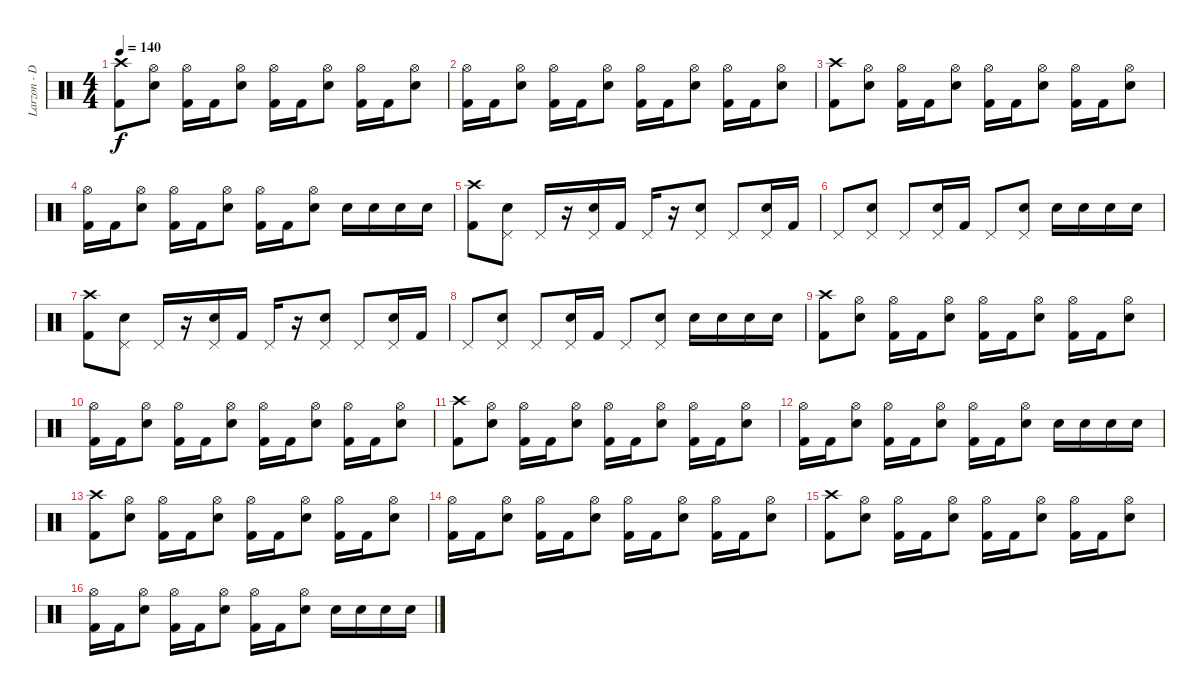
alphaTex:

\track ("Larzon - Drums" "Larzon - D") {instrument percussion}
\staff {score}
\articulation defaults
\ts (4 4)
\tempo 140
\clef neutral
\ks c
("Crash high (hit)" "Kick (hit) 2").8{dy f} ("Hi-Hat (open)" "Electric Snare (hit)").8 ("Hi-Hat (open)" "Kick (hit) 2").16 "Kick (hit) 2".16 ("Hi-Hat (open)" "Electric Snare (hit)").8 ("Hi-Hat (open)" "Kick (hit) 2").16 "Kick (hit) 2".16 ("Hi-Hat (open)" "Electric Snare (hit)").8 ("Hi-Hat (open)" "Kick (hit) 2").16 "Kick (hit) 2".16 ("Hi-Hat (open)" "Electric Snare (hit)").8 |
("Hi-Hat (open)" "Kick (hit) 2").16 "Kick (hit) 2".16 ("Hi-Hat (open)" "Electric Snare (hit)").8 ("Hi-Hat (open)" "Kick (hit) 2").16 "Kick (hit) 2".16 ("Hi-Hat (open)" "Electric Snare (hit)").8 ("Hi-Hat (open)" "Kick (hit) 2").16 "Kick (hit) 2".16 ("Hi-Hat (open)" "Electric Snare (hit)").8 ("Hi-Hat (open)" "Kick (hit) 2").16 "Kick (hit) 2".16 ("Hi-Hat (open)" "Electric Snare (hit)").8 |
("Crash high (hit)" "Kick (hit) 2").8 ("Hi-Hat (open)" "Electric Snare (hit)").8 ("Hi-Hat (open)" "Kick (hit) 2").16 "Kick (hit) 2".16 ("Hi-Hat (open)" "Electric Snare (hit)").8 ("Hi-Hat (open)" "Kick (hit) 2").16 "Kick (hit) 2".16 ("Hi-Hat (open)" "Electric Snare (hit)").8 ("Hi-Hat (open)" "Kick (hit) 2").16 "Kick (hit) 2".16 ("Hi-Hat (open)" "Electric Snare (hit)").8 |
("Hi-Hat (open)" "Kick (hit) 2").16 "Kick (hit) 2".16 ("Hi-Hat (open)" "Electric Snare (hit)").8 ("Hi-Hat (open)" "Kick (hit) 2").16 "Kick (hit) 2".16 ("Hi-Hat (open)" "Electric Snare (hit)").8 ("Hi-Hat (open)" "Kick (hit) 2").16 "Kick (hit) 2".16 ("Hi-Hat (open)" "Electric Snare (hit)").8 "Electric Snare (hit)".16 "Electric Snare (hit)".16 "Electric Snare (hit)".16 "Electric Snare (hit)".16 |
("Crash high (hit)" "Kick (hit) 2").8 ("Pedal Hi-Hat (hit)" "Electric Snare (hit)").8 "Pedal Hi-Hat (hit)".16 r.16 ("Pedal Hi-Hat (hit)" "Electric Snare (hit)").16 "Kick (hit) 2".16 "Pedal Hi-Hat (hit)".16 r.16 ("Pedal Hi-Hat (hit)" "Electric Snare (hit)").8 "Pedal Hi-Hat (hit)".8 ("Pedal Hi-Hat (hit)" "Electric Snare (hit)").16 "Kick (hit) 2".16 |
"Pedal Hi-Hat (hit)".8 ("Pedal Hi-Hat (hit)" "Electric Snare (hit)").8 "Pedal Hi-Hat (hit)".8 ("Pedal Hi-Hat (hit)" "Electric Snare (hit)").16 "Kick (hit) 2".16 "Pedal Hi-Hat (hit)".8 ("Pedal Hi-Hat (hit)" "Electric Snare (hit)").8 "Electric Snare (hit)".16 "Electric Snare (hit)".16 "Electric Snare (hit)".16 "Electric Snare (hit)".16 |
("Crash high (hit)" "Kick (hit) 2").8 ("Pedal Hi-Hat (hit)" "Electric Snare (hit)").8 "Pedal Hi-Hat (hit)".16 r.16 ("Pedal Hi-Hat (hit)" "Electric Snare (hit)").16 "Kick (hit) 2".16 "Pedal Hi-Hat (hit)".16 r.16 ("Pedal Hi-Hat (hit)" "Electric Snare (hit)").8 "Pedal Hi-Hat (hit)".8 ("Pedal Hi-Hat (hit)" "Electric Snare (hit)").16 "Kick (hit) 2".16 |
"Pedal Hi-Hat (hit)".8 ("Pedal Hi-Hat (hit)" "Electric Snare (hit)").8 "Pedal Hi-Hat (hit)".8 ("Pedal Hi-Hat (hit)" "Electric Snare (hit)").16 "Kick (hit) 2".16 "Pedal Hi-Hat (hit)".8 ("Pedal Hi-Hat (hit)" "Electric Snare (hit)").8 "Electric Snare (hit)".16 "Electric Snare (hit)".16 "Electric Snare (hit)".16 "Electric Snare (hit)".16 |
("Crash high (hit)" "Kick (hit) 2").8 ("Hi-Hat (open)" "Electric Snare (hit)").8 ("Hi-Hat (open)" "Kick (hit) 2").16 "Kick (hit) 2".16 ("Hi-Hat (open)" "Electric Snare (hit)").8 ("Hi-Hat (open)" "Kick (hit) 2").16 "Kick (hit) 2".16 ("Hi-Hat (open)" "Electric Snare (hit)").8 ("Hi-Hat (open)" "Kick (hit) 2").16 "Kick (hit) 2".16 ("Hi-Hat (open)" "Electric Snare (hit)").8 |
("Hi-Hat (open)" "Kick (hit) 2").16 "Kick (hit) 2".16 ("Hi-Hat (open)" "Electric Snare (hit)").8 ("Hi-Hat (open)" "Kick (hit) 2").16 "Kick (hit) 2".16 ("Hi-Hat (open)" "Electric Snare (hit)").8 ("Hi-Hat (open)" "Kick (hit) 2").16 "Kick (hit) 2".16 ("Hi-Hat (open)" "Electric Snare (hit)").8 ("Hi-Hat (open)" "Kick (hit) 2").16 "Kick (hit) 2".16 ("Hi-Hat (open)" "Electric Snare (hit)").8 |
("Crash high (hit)" "Kick (hit) 2").8 ("Hi-Hat (open)" "Electric Snare (hit)").8 ("Hi-Hat (open)" "Kick (hit) 2").16 "Kick (hit) 2".16 ("Hi-Hat (open)" "Electric Snare (hit)").8 ("Hi-Hat (open)" "Kick (hit) 2").16 "Kick (hit) 2".16 ("Hi-Hat (open)" "Electric Snare (hit)").8 ("Hi-Hat (open)" "Kick (hit) 2").16 "Kick (hit) 2".16 ("Hi-Hat (open)" "Electric Snare (hit)").8 |
("Hi-Hat (open)" "Kick (hit) 2").16 "Kick (hit) 2".16 ("Hi-Hat (open)" "Electric Snare (hit)").8 ("Hi-Hat (open)" "Kick (hit) 2").16 "Kick (hit) 2".16 ("Hi-Hat (open)" "Electric Snare (hit)").8 ("Hi-Hat (open)" "Kick (hit) 2").16 "Kick (hit) 2".16 ("Hi-Hat (open)" "Electric Snare (hit)").8 "Electric Snare (hit)".16 "Electric Snare (hit)".16 "Electric Snare (hit)".16 "Electric Snare (hit)".16 |
("Crash high (hit)" "Kick (hit) 2").8 ("Hi-Hat (open)" "Electric Snare (hit)").8 ("Hi-Hat (open)" "Kick (hit) 2").16 "Kick (hit) 2".16 ("Hi-Hat (open)" "Electric Snare (hit)").8 ("Hi-Hat (open)" "Kick (hit) 2").16 "Kick (hit) 2".16 ("Hi-Hat (open)" "Electric Snare (hit)").8 ("Hi-Hat (open)" "Kick (hit) 2").16 "Kick (hit) 2".16 ("Hi-Hat (open)" "Electric Snare (hit)").8 |
("Hi-Hat (open)" "Kick (hit) 2").16 "Kick (hit) 2".16 ("Hi-Hat (open)" "Electric Snare (hit)").8 ("Hi-Hat (open)" "Kick (hit) 2").16 "Kick (hit) 2".16 ("Hi-Hat (open)" "Electric Snare (hit)").8 ("Hi-Hat (open)" "Kick (hit) 2").16 "Kick (hit) 2".16 ("Hi-Hat (open)" "Electric Snare (hit)").8 ("Hi-Hat (open)" "Kick (hit) 2").16 "Kick (hit) 2".16 ("Hi-Hat (open)" "Electric Snare (hit)").8 |
("Crash high (hit)" "Kick (hit) 2").8 ("Hi-Hat (open)" "Electric Snare (hit)").8 ("Hi-Hat (open)" "Kick (hit) 2").16 "Kick (hit) 2".16 ("Hi-Hat (open)" "Electric Snare (hit)").8 ("Hi-Hat (open)" "Kick (hit) 2").16 "Kick (hit) 2".16 ("Hi-Hat (open)" "Electric Snare (hit)").8 ("Hi-Hat (open)" "Kick (hit) 2").16 "Kick (hit) 2".16 ("Hi-Hat (open)" "Electric Snare (hit)").8 |
("Hi-Hat (open)" "Kick (hit) 2").16 "Kick (hit) 2".16 ("Hi-Hat (open)" "Electric Snare (hit)").8 ("Hi-Hat (open)" "Kick (hit) 2").16 "Kick (hit) 2".16 ("Hi-Hat (open)" "Electric Snare (hit)").8 ("Hi-Hat (open)" "Kick (hit) 2").16 "Kick (hit) 2".16 ("Hi-Hat (open)" "Electric Snare (hit)").8 "Electric Snare (hit)".16 "Electric Snare (hit)".16 "Electric Snare (hit)".16 "Electric Snare (hit)".16
